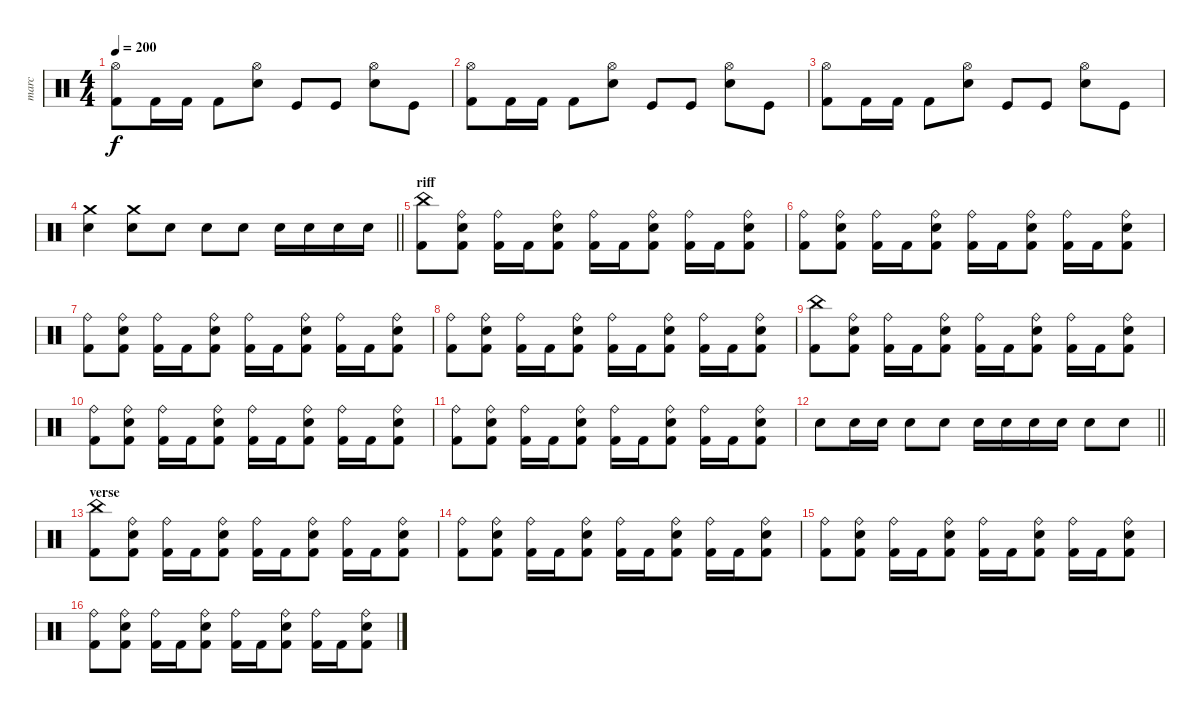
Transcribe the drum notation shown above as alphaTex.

\track ("marc" "marc") {instrument percussion}
\staff {score}
\articulation defaults
\ts (4 4)
\tempo 200
\clef neutral
\ks c
("Hi-Hat (open)" "Kick (hit) 2").8{dy f} "Kick (hit) 2".16 "Kick (hit) 2".16 "Kick (hit) 2".8 ("Hi-Hat (open)" "Snare (hit) 2").8 "Kick (hit)".8 "Kick (hit)".8 ("Hi-Hat (open)" "Snare (hit) 2").8 "Kick (hit)".8 |
("Hi-Hat (open)" "Kick (hit) 2").8 "Kick (hit) 2".16 "Kick (hit) 2".16 "Kick (hit) 2".8 ("Hi-Hat (open)" "Snare (hit) 2").8 "Kick (hit)".8 "Kick (hit)".8 ("Hi-Hat (open)" "Snare (hit) 2").8 "Kick (hit)".8 |
("Hi-Hat (open)" "Kick (hit) 2").8 "Kick (hit) 2".16 "Kick (hit) 2".16 "Kick (hit) 2".8 ("Hi-Hat (open)" "Snare (hit) 2").8 "Kick (hit)".8 "Kick (hit)".8 ("Hi-Hat (open)" "Snare (hit) 2").8 "Kick (hit)".8 |
\barLineRight lightlight
("Crash medium (hit)" "Snare (hit) 2").4 ("Crash medium (hit)" "Snare (hit) 2").8 "Snare (hit) 2".8 "Snare (hit) 2".8 "Snare (hit) 2".8 "Snare (hit) 2".16 "Snare (hit) 2".16 "Snare (hit) 2".16 "Snare (hit) 2".16 |
\section ("" "riff")
("China (hit)" "Kick (hit) 2").8 ("Ride (bell)" "Snare (hit) 2" "Kick (hit) 2").8 ("Ride (bell)" "Kick (hit) 2").16 "Kick (hit) 2".16 ("Ride (bell)" "Snare (hit) 2" "Kick (hit) 2").8 ("Ride (bell)" "Kick (hit) 2").16 "Kick (hit) 2".16 ("Ride (bell)" "Snare (hit) 2" "Kick (hit) 2").8 ("Ride (bell)" "Kick (hit) 2").16 "Kick (hit) 2".16 ("Ride (bell)" "Snare (hit) 2" "Kick (hit) 2").8 |
("Ride (bell)" "Kick (hit) 2").8 ("Ride (bell)" "Snare (hit) 2" "Kick (hit) 2").8 ("Ride (bell)" "Kick (hit) 2").16 "Kick (hit) 2".16 ("Ride (bell)" "Snare (hit) 2" "Kick (hit) 2").8 ("Ride (bell)" "Kick (hit) 2").16 "Kick (hit) 2".16 ("Ride (bell)" "Snare (hit) 2" "Kick (hit) 2").8 ("Ride (bell)" "Kick (hit) 2").16 "Kick (hit) 2".16 ("Ride (bell)" "Snare (hit) 2" "Kick (hit) 2").8 |
("Ride (bell)" "Kick (hit) 2").8 ("Ride (bell)" "Snare (hit) 2" "Kick (hit) 2").8 ("Ride (bell)" "Kick (hit) 2").16 "Kick (hit) 2".16 ("Ride (bell)" "Snare (hit) 2" "Kick (hit) 2").8 ("Ride (bell)" "Kick (hit) 2").16 "Kick (hit) 2".16 ("Ride (bell)" "Snare (hit) 2" "Kick (hit) 2").8 ("Ride (bell)" "Kick (hit) 2").16 "Kick (hit) 2".16 ("Ride (bell)" "Snare (hit) 2" "Kick (hit) 2").8 |
("Ride (bell)" "Kick (hit) 2").8 ("Ride (bell)" "Snare (hit) 2" "Kick (hit) 2").8 ("Ride (bell)" "Kick (hit) 2").16 "Kick (hit) 2".16 ("Ride (bell)" "Snare (hit) 2" "Kick (hit) 2").8 ("Ride (bell)" "Kick (hit) 2").16 "Kick (hit) 2".16 ("Ride (bell)" "Snare (hit) 2" "Kick (hit) 2").8 ("Ride (bell)" "Kick (hit) 2").16 "Kick (hit) 2".16 ("Ride (bell)" "Snare (hit) 2" "Kick (hit) 2").8 |
("China (hit)" "Kick (hit) 2").8 ("Ride (bell)" "Snare (hit) 2" "Kick (hit) 2").8 ("Ride (bell)" "Kick (hit) 2").16 "Kick (hit) 2".16 ("Ride (bell)" "Snare (hit) 2" "Kick (hit) 2").8 ("Ride (bell)" "Kick (hit) 2").16 "Kick (hit) 2".16 ("Ride (bell)" "Snare (hit) 2" "Kick (hit) 2").8 ("Ride (bell)" "Kick (hit) 2").16 "Kick (hit) 2".16 ("Ride (bell)" "Snare (hit) 2" "Kick (hit) 2").8 |
("Ride (bell)" "Kick (hit) 2").8 ("Ride (bell)" "Snare (hit) 2" "Kick (hit) 2").8 ("Ride (bell)" "Kick (hit) 2").16 "Kick (hit) 2".16 ("Ride (bell)" "Snare (hit) 2" "Kick (hit) 2").8 ("Ride (bell)" "Kick (hit) 2").16 "Kick (hit) 2".16 ("Ride (bell)" "Snare (hit) 2" "Kick (hit) 2").8 ("Ride (bell)" "Kick (hit) 2").16 "Kick (hit) 2".16 ("Ride (bell)" "Snare (hit) 2" "Kick (hit) 2").8 |
("Ride (bell)" "Kick (hit) 2").8 ("Ride (bell)" "Snare (hit) 2" "Kick (hit) 2").8 ("Ride (bell)" "Kick (hit) 2").16 "Kick (hit) 2".16 ("Ride (bell)" "Snare (hit) 2" "Kick (hit) 2").8 ("Ride (bell)" "Kick (hit) 2").16 "Kick (hit) 2".16 ("Ride (bell)" "Snare (hit) 2" "Kick (hit) 2").8 ("Ride (bell)" "Kick (hit) 2").16 "Kick (hit) 2".16 ("Ride (bell)" "Snare (hit) 2" "Kick (hit) 2").8 |
\barLineRight lightlight "Snare (hit) 2".8 "Snare (hit) 2".16 "Snare (hit) 2".16 "Snare (hit) 2".8 "Snare (hit) 2".8 "Snare (hit) 2".16 "Snare (hit) 2".16 "Snare (hit) 2".16 "Snare (hit) 2".16 "Snare (hit) 2".8 "Snare (hit) 2".8
|
\section ("" "verse")
("China (hit)" "Kick (hit) 2").8 ("Ride (bell)" "Snare (hit) 2" "Kick (hit) 2").8 ("Ride (bell)" "Kick (hit) 2").16 "Kick (hit) 2".16 ("Ride (bell)" "Snare (hit) 2" "Kick (hit) 2").8 ("Ride (bell)" "Kick (hit) 2").16 "Kick (hit) 2".16 ("Ride (bell)" "Snare (hit) 2" "Kick (hit) 2").8 ("Ride (bell)" "Kick (hit) 2").16 "Kick (hit) 2".16 ("Ride (bell)" "Snare (hit) 2" "Kick (hit) 2").8 |
("Ride (bell)" "Kick (hit) 2").8 ("Ride (bell)" "Snare (hit) 2" "Kick (hit) 2").8 ("Ride (bell)" "Kick (hit) 2").16 "Kick (hit) 2".16 ("Ride (bell)" "Snare (hit) 2" "Kick (hit) 2").8 ("Ride (bell)" "Kick (hit) 2").16 "Kick (hit) 2".16 ("Ride (bell)" "Snare (hit) 2" "Kick (hit) 2").8 ("Ride (bell)" "Kick (hit) 2").16 "Kick (hit) 2".16 ("Ride (bell)" "Snare (hit) 2" "Kick (hit) 2").8 |
("Ride (bell)" "Kick (hit) 2").8 ("Ride (bell)" "Snare (hit) 2" "Kick (hit) 2").8 ("Ride (bell)" "Kick (hit) 2").16 "Kick (hit) 2".16 ("Ride (bell)" "Snare (hit) 2" "Kick (hit) 2").8 ("Ride (bell)" "Kick (hit) 2").16 "Kick (hit) 2".16 ("Ride (bell)" "Snare (hit) 2" "Kick (hit) 2").8 ("Ride (bell)" "Kick (hit) 2").16 "Kick (hit) 2".16 ("Ride (bell)" "Snare (hit) 2" "Kick (hit) 2").8 |
("Ride (bell)" "Kick (hit) 2").8 ("Ride (bell)" "Snare (hit) 2" "Kick (hit) 2").8 ("Ride (bell)" "Kick (hit) 2").16 "Kick (hit) 2".16 ("Ride (bell)" "Snare (hit) 2" "Kick (hit) 2").8 ("Ride (bell)" "Kick (hit) 2").16 "Kick (hit) 2".16 ("Ride (bell)" "Snare (hit) 2" "Kick (hit) 2").8 ("Ride (bell)" "Kick (hit) 2").16 "Kick (hit) 2".16 ("Ride (bell)" "Snare (hit) 2" "Kick (hit) 2").8
